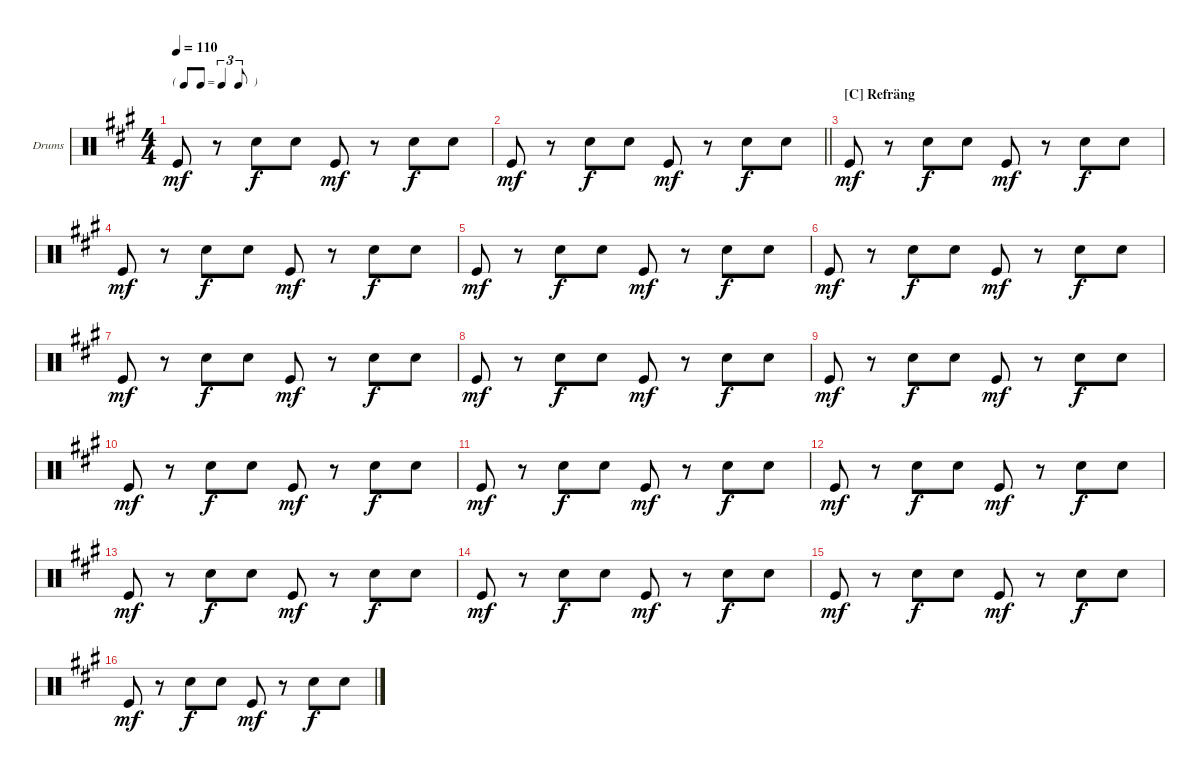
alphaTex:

\defaultSystemsLayout 4
\bracketExtendMode groupsimilarinstruments
\firstSystemTrackNameOrientation horizontal
\otherSystemsTrackNameOrientation horizontal
\track ("Drumkit" "Drums") {instrument percussion}
\staff {score}
\articulation defaults
\ts (4 4)
\tf triplet8th
\tempo 110
\clef neutral
\scale
0.333333
\ks a "Kick (hit)".8{dy mf}
r.8 "Snare (hit) 2".8{dy f} "Snare (hit) 2".8 "Kick (hit)".8{dy mf} r.8 "Snare (hit) 2".8{dy f} "Snare (hit) 2".8 |
\scale
0.333333
\barLineRight lightlight "Kick (hit)".8{dy mf}
r.8 "Snare (hit) 2".8{dy f} "Snare (hit) 2".8 "Kick (hit)".8{dy mf} r.8 "Snare (hit) 2".8{dy f} "Snare (hit) 2".8 |
\section ("C" "Refräng")
\scale
0.333333 "Kick (hit)".8{dy mf} r.8 "Snare (hit) 2".8{dy f} "Snare (hit) 2".8 "Kick (hit)".8{dy mf} r.8 "Snare (hit) 2".8{dy f} "Snare (hit) 2".8 |
\scale
0.333333 "Kick (hit)".8{dy mf} r.8 "Snare (hit) 2".8{dy f} "Snare (hit) 2".8 "Kick (hit)".8{dy mf} r.8 "Snare (hit) 2".8{dy f} "Snare (hit) 2".8 |
\scale
0.333333 "Kick (hit)".8{dy mf} r.8 "Snare (hit) 2".8{dy f} "Snare (hit) 2".8 "Kick (hit)".8{dy mf} r.8 "Snare (hit) 2".8{dy f} "Snare (hit) 2".8 |
\scale
0.333333 "Kick (hit)".8{dy mf} r.8 "Snare (hit) 2".8{dy f} "Snare (hit) 2".8 "Kick (hit)".8{dy mf} r.8 "Snare (hit) 2".8{dy f} "Snare (hit) 2".8 |
\scale
0.333333 "Kick (hit)".8{dy mf} r.8 "Snare (hit) 2".8{dy f} "Snare (hit) 2".8 "Kick (hit)".8{dy mf} r.8 "Snare (hit) 2".8{dy f} "Snare (hit) 2".8 |
\scale
0.333333 "Kick (hit)".8{dy mf} r.8 "Snare (hit) 2".8{dy f} "Snare (hit) 2".8 "Kick (hit)".8{dy mf} r.8 "Snare (hit) 2".8{dy f} "Snare (hit) 2".8 |
\scale
0.333333 "Kick (hit)".8{dy mf} r.8 "Snare (hit) 2".8{dy f} "Snare (hit) 2".8 "Kick (hit)".8{dy mf} r.8 "Snare (hit) 2".8{dy f} "Snare (hit) 2".8 |
\scale
0.333333 "Kick (hit)".8{dy mf} r.8 "Snare (hit) 2".8{dy f} "Snare (hit) 2".8 "Kick (hit)".8{dy mf} r.8 "Snare (hit) 2".8{dy f} "Snare (hit) 2".8 |
\scale
0.333333 "Kick (hit)".8{dy mf} r.8 "Snare (hit) 2".8{dy f} "Snare (hit) 2".8 "Kick (hit)".8{dy mf} r.8 "Snare (hit) 2".8{dy f} "Snare (hit) 2".8 |
\scale
0.333333 "Kick (hit)".8{dy mf} r.8 "Snare (hit) 2".8{dy f} "Snare (hit) 2".8 "Kick (hit)".8{dy mf} r.8 "Snare (hit) 2".8{dy f} "Snare (hit) 2".8 |
\scale
0.333333 "Kick (hit)".8{dy mf} r.8 "Snare (hit) 2".8{dy f} "Snare (hit) 2".8 "Kick (hit)".8{dy mf} r.8 "Snare (hit) 2".8{dy f} "Snare (hit) 2".8 |
\scale
0.333333 "Kick (hit)".8{dy mf} r.8 "Snare (hit) 2".8{dy f} "Snare (hit) 2".8 "Kick (hit)".8{dy mf} r.8 "Snare (hit) 2".8{dy f} "Snare (hit) 2".8 |
\scale
0.333333 "Kick (hit)".8{dy mf} r.8 "Snare (hit) 2".8{dy f} "Snare (hit) 2".8 "Kick (hit)".8{dy mf} r.8 "Snare (hit) 2".8{dy f} "Snare (hit) 2".8 |
\scale
0.333333 "Kick (hit)".8{dy mf} r.8 "Snare (hit) 2".8{dy f} "Snare (hit) 2".8 "Kick (hit)".8{dy mf} r.8 "Snare (hit) 2".8{dy f} "Snare (hit) 2".8
